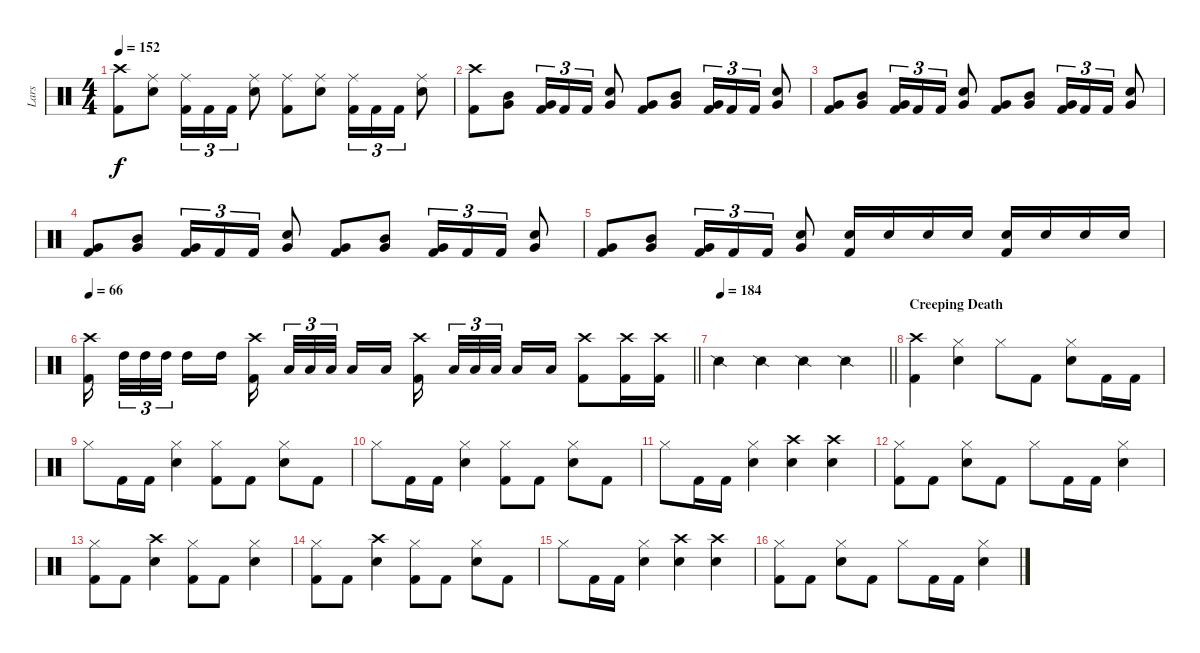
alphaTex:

\track ("Lars" "Lars") {instrument percussion}
\staff {score}
\articulation defaults
\ts (4 4)
\tempo 152
\clef neutral
\ks c
("Crash high (hit)" "Kick (hit) 2").8{dy f} ("Ride (middle)" "Snare (hit) 2").8 ("Ride (middle)" "Kick (hit) 2").16{tu (3 2)} "Kick (hit) 2".16{tu (3 2)} "Kick (hit) 2".16{tu (3 2)} ("Ride (middle)" "Snare (hit) 2").8 ("Ride (middle)" "Kick (hit) 2").8 ("Ride (middle)" "Snare (hit) 2").8 ("Ride (middle)" "Kick (hit) 2").16{tu (3 2)} "Kick (hit) 2".16{tu (3 2)} "Kick (hit) 2".16{tu (3 2)} ("Ride (middle)" "Snare (hit) 2").8 |
("Crash high (hit)" "Kick (hit) 2").8 ("Mid Tom (hit)" "Very Low Tom (hit)").8 ("Very Low Tom (hit)" "Kick (hit) 2").16{tu (3 2)} "Kick (hit) 2".16{tu (3 2)} "Kick (hit) 2".16{tu (3 2)} ("Snare (hit) 2" "Very Low Tom (hit)").8 ("Very Low Tom (hit)" "Kick (hit) 2").8 ("Mid Tom (hit)" "Very Low Tom (hit)").8 ("Very Low Tom (hit)" "Kick (hit) 2").16{tu (3 2)} "Kick (hit) 2".16{tu (3 2)} "Kick (hit) 2".16{tu (3 2)} ("Snare (hit) 2" "Very Low Tom (hit)").8 |
("Very Low Tom (hit)" "Kick (hit) 2").8 ("Mid Tom (hit)" "Very Low Tom (hit)").8 ("Very Low Tom (hit)" "Kick (hit) 2").16{tu (3 2)} "Kick (hit) 2".16{tu (3 2)} "Kick (hit) 2".16{tu (3 2)} ("Snare (hit) 2" "Very Low Tom (hit)").8 ("Very Low Tom (hit)" "Kick (hit) 2").8 ("Mid Tom (hit)" "Very Low Tom (hit)").8 ("Very Low Tom (hit)" "Kick (hit) 2").16{tu (3 2)} "Kick (hit) 2".16{tu (3 2)} "Kick (hit) 2".16{tu (3 2)} ("Snare (hit) 2" "Very Low Tom (hit)").8 |
("Very Low Tom (hit)" "Kick (hit) 2").8 ("Mid Tom (hit)" "Very Low Tom (hit)").8 ("Very Low Tom (hit)" "Kick (hit) 2").16{tu (3 2)} "Kick (hit) 2".16{tu (3 2)} "Kick (hit) 2".16{tu (3 2)} ("Snare (hit) 2" "Very Low Tom (hit)").8 ("Very Low Tom (hit)" "Kick (hit) 2").8 ("Mid Tom (hit)" "Very Low Tom (hit)").8 ("Very Low Tom (hit)" "Kick (hit) 2").16{tu (3 2)} "Kick (hit) 2".16{tu (3 2)} "Kick (hit) 2".16{tu (3 2)} ("Snare (hit) 2" "Very Low Tom (hit)").8 |
("Very Low Tom (hit)" "Kick (hit) 2").8 ("Mid Tom (hit)" "Very Low Tom (hit)").8 ("Very Low Tom (hit)" "Kick (hit) 2").16{tu (3 2)} "Kick (hit) 2".16{tu (3 2)} "Kick (hit) 2".16{tu (3 2)} ("Snare (hit) 2" "Very Low Tom (hit)").8 ("Snare (hit) 2" "Kick (hit) 2").16 "Snare (hit) 2".16 "Snare (hit) 2".16 "Snare (hit) 2".16 ("Snare (hit) 2" "Kick (hit) 2").16 "Snare (hit) 2".16 "Snare (hit) 2".16 "Snare (hit) 2".16 |
\tempo 66
\barLineRight lightlight
("Crash high (hit)" "Kick (hit) 2").16{beam splitsecondary} "High Tom (hit)".32{tu (3 2)} "High Tom (hit)".32{tu (3 2)} "High Tom (hit)".32{tu (3 2) beam splitsecondary} "High Tom (hit)".16 "High Tom (hit)".16 ("Crash high (hit)" "Kick (hit) 2").16{beam splitsecondary} "Low Tom (hit)".32{tu (3 2)} "Low Tom (hit)".32{tu (3 2)} "Low Tom (hit)".32{tu (3 2) beam splitsecondary} "Low Tom (hit)".16 "Low Tom (hit)".16 ("Crash high (hit)" "Kick (hit) 2").16{beam splitsecondary} "Low Floor Tom (hit)".32{tu (3 2)} "Low Floor Tom (hit)".32{tu (3 2)} "Low Floor Tom (hit)".32{tu (3 2) beam splitsecondary} "Low Floor Tom (hit)".16 "Low Floor Tom (hit)".16 ("Crash high (hit)" "Kick (hit) 2").8 ("Crash high (hit)" "Kick (hit) 2").16 ("Crash high (hit)" "Kick (hit) 2").16 |
\tempo 184
\barLineRight lightlight "Snare (side stick) 2".4 "Snare (side stick) 2".4 "Snare (side stick) 2".4 "Snare (side stick) 2".4
|
\section ("" "Creeping Death")
("Crash high (hit)" "Kick (hit) 2").4 ("Hi-Hat (closed)" "Snare (hit) 2").4 "Hi-Hat (closed)".8 "Kick (hit) 2".8 ("Hi-Hat (closed)" "Snare (hit) 2").8 "Kick (hit) 2".16 "Kick (hit) 2".16 |
"Hi-Hat (closed)".8 "Kick (hit) 2".16 "Kick (hit) 2".16 ("Hi-Hat (closed)" "Snare (hit) 2").4 ("Hi-Hat (closed)" "Kick (hit) 2").8 "Kick (hit) 2".8 ("Hi-Hat (closed)" "Snare (hit) 2").8 "Kick (hit) 2".8 |
"Hi-Hat (closed)".8 "Kick (hit) 2".16 "Kick (hit) 2".16 ("Hi-Hat (closed)" "Snare (hit) 2").4 ("Hi-Hat (closed)" "Kick (hit) 2").8 "Kick (hit) 2".8 ("Hi-Hat (closed)" "Snare (hit) 2").8 "Kick (hit) 2".8 |
"Hi-Hat (closed)".8 "Kick (hit) 2".16 "Kick (hit) 2".16 ("Hi-Hat (closed)" "Snare (hit) 2").4 ("Crash high (hit)" "Snare (hit) 2").4 ("Crash high (hit)" "Snare (hit) 2").4 |
("Hi-Hat (closed)" "Kick (hit) 2").8 "Kick (hit) 2".8 ("Hi-Hat (closed)" "Snare (hit) 2").8 "Kick (hit) 2".8 "Hi-Hat (closed)".8 "Kick (hit) 2".16 "Kick (hit) 2".16 ("Hi-Hat (closed)" "Snare (hit) 2").4 |
("Hi-Hat (closed)" "Kick (hit) 2").8 "Kick (hit) 2".8 ("Crash high (hit)" "Snare (hit) 2").4 ("Hi-Hat (closed)" "Kick (hit) 2").8 "Kick (hit) 2".8 ("Hi-Hat (closed)" "Snare (hit) 2").4 |
("Hi-Hat (closed)" "Kick (hit) 2").8 "Kick (hit) 2".8 ("Crash high (hit)" "Snare (hit) 2").4 ("Hi-Hat (closed)" "Kick (hit) 2").8 "Kick (hit) 2".8 ("Hi-Hat (closed)" "Snare (hit) 2").8 "Kick (hit) 2".8 |
"Hi-Hat (closed)".8 "Kick (hit) 2".16 "Kick (hit) 2".16 ("Hi-Hat (closed)" "Snare (hit) 2").4 ("Crash high (hit)" "Snare (hit) 2").4 ("Crash high (hit)" "Snare (hit) 2").4 |
("Hi-Hat (closed)" "Kick (hit) 2").8 "Kick (hit) 2".8 ("Hi-Hat (closed)" "Snare (hit) 2").8 "Kick (hit) 2".8 "Hi-Hat (closed)".8 "Kick (hit) 2".16 "Kick (hit) 2".16 ("Hi-Hat (closed)" "Snare (hit) 2").4
